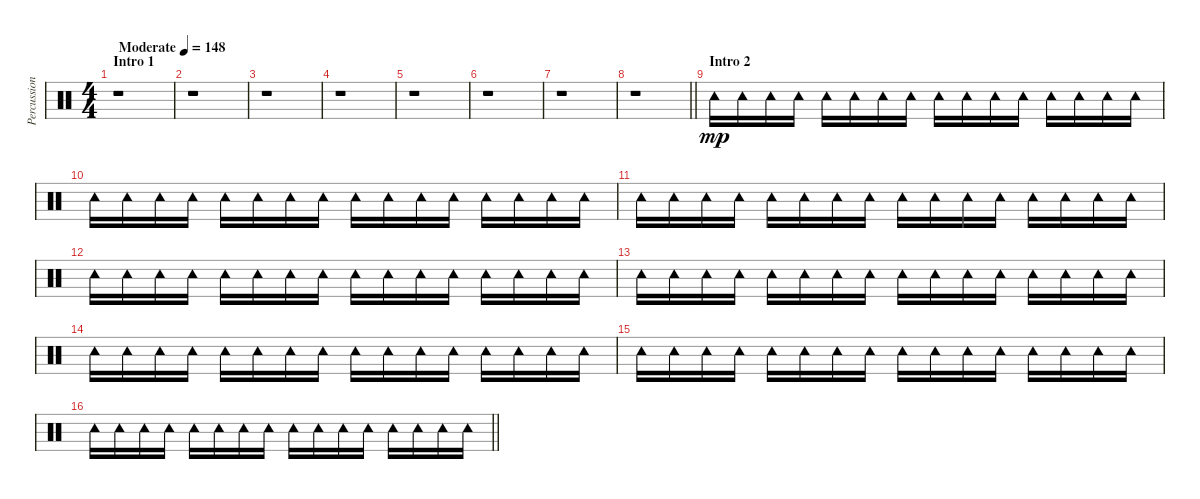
\track ("Percussion" "Percussion") {instrument percussion}
\staff {score}
\articulation defaults
\ts (4 4)
\section ("" "Intro 1")
\tempo (148 "Moderate")
\clef neutral
\ks c
r.1{dy mp} |
r.1 |
r.1 |
r.1 |
r.1 |
r.1 |
r.1 |
\barLineRight lightlight
r.1 |
\section ("" "Intro 2")
"Tambourine (hit)".16 "Tambourine (hit)".16 "Tambourine (hit)".16 "Tambourine (hit)".16 "Tambourine (hit)".16 "Tambourine (hit)".16 "Tambourine (hit)".16 "Tambourine (hit)".16 "Tambourine (hit)".16 "Tambourine (hit)".16 "Tambourine (hit)".16 "Tambourine (hit)".16 "Tambourine (hit)".16 "Tambourine (hit)".16 "Tambourine (hit)".16 "Tambourine (hit)".16 |
"Tambourine (hit)".16 "Tambourine (hit)".16 "Tambourine (hit)".16 "Tambourine (hit)".16 "Tambourine (hit)".16 "Tambourine (hit)".16 "Tambourine (hit)".16 "Tambourine (hit)".16 "Tambourine (hit)".16 "Tambourine (hit)".16 "Tambourine (hit)".16 "Tambourine (hit)".16 "Tambourine (hit)".16 "Tambourine (hit)".16 "Tambourine (hit)".16 "Tambourine (hit)".16 |
"Tambourine (hit)".16 "Tambourine (hit)".16 "Tambourine (hit)".16 "Tambourine (hit)".16 "Tambourine (hit)".16 "Tambourine (hit)".16 "Tambourine (hit)".16 "Tambourine (hit)".16 "Tambourine (hit)".16 "Tambourine (hit)".16 "Tambourine (hit)".16 "Tambourine (hit)".16 "Tambourine (hit)".16 "Tambourine (hit)".16 "Tambourine (hit)".16 "Tambourine (hit)".16 |
"Tambourine (hit)".16 "Tambourine (hit)".16 "Tambourine (hit)".16 "Tambourine (hit)".16 "Tambourine (hit)".16 "Tambourine (hit)".16 "Tambourine (hit)".16 "Tambourine (hit)".16 "Tambourine (hit)".16 "Tambourine (hit)".16 "Tambourine (hit)".16 "Tambourine (hit)".16 "Tambourine (hit)".16 "Tambourine (hit)".16 "Tambourine (hit)".16 "Tambourine (hit)".16 |
"Tambourine (hit)".16 "Tambourine (hit)".16 "Tambourine (hit)".16 "Tambourine (hit)".16 "Tambourine (hit)".16 "Tambourine (hit)".16 "Tambourine (hit)".16 "Tambourine (hit)".16 "Tambourine (hit)".16 "Tambourine (hit)".16 "Tambourine (hit)".16 "Tambourine (hit)".16 "Tambourine (hit)".16 "Tambourine (hit)".16 "Tambourine (hit)".16 "Tambourine (hit)".16 |
"Tambourine (hit)".16 "Tambourine (hit)".16 "Tambourine (hit)".16 "Tambourine (hit)".16 "Tambourine (hit)".16 "Tambourine (hit)".16 "Tambourine (hit)".16 "Tambourine (hit)".16 "Tambourine (hit)".16 "Tambourine (hit)".16 "Tambourine (hit)".16 "Tambourine (hit)".16 "Tambourine (hit)".16 "Tambourine (hit)".16 "Tambourine (hit)".16 "Tambourine (hit)".16 |
"Tambourine (hit)".16 "Tambourine (hit)".16 "Tambourine (hit)".16 "Tambourine (hit)".16 "Tambourine (hit)".16 "Tambourine (hit)".16 "Tambourine (hit)".16 "Tambourine (hit)".16 "Tambourine (hit)".16 "Tambourine (hit)".16 "Tambourine (hit)".16 "Tambourine (hit)".16 "Tambourine (hit)".16 "Tambourine (hit)".16 "Tambourine (hit)".16 "Tambourine (hit)".16 |
\barLineRight lightlight "Tambourine (hit)".16 "Tambourine (hit)".16 "Tambourine (hit)".16 "Tambourine (hit)".16 "Tambourine (hit)".16 "Tambourine (hit)".16 "Tambourine (hit)".16 "Tambourine (hit)".16 "Tambourine (hit)".16 "Tambourine (hit)".16 "Tambourine (hit)".16 "Tambourine (hit)".16 "Tambourine (hit)".16 "Tambourine (hit)".16 "Tambourine (hit)".16 "Tambourine (hit)".16
